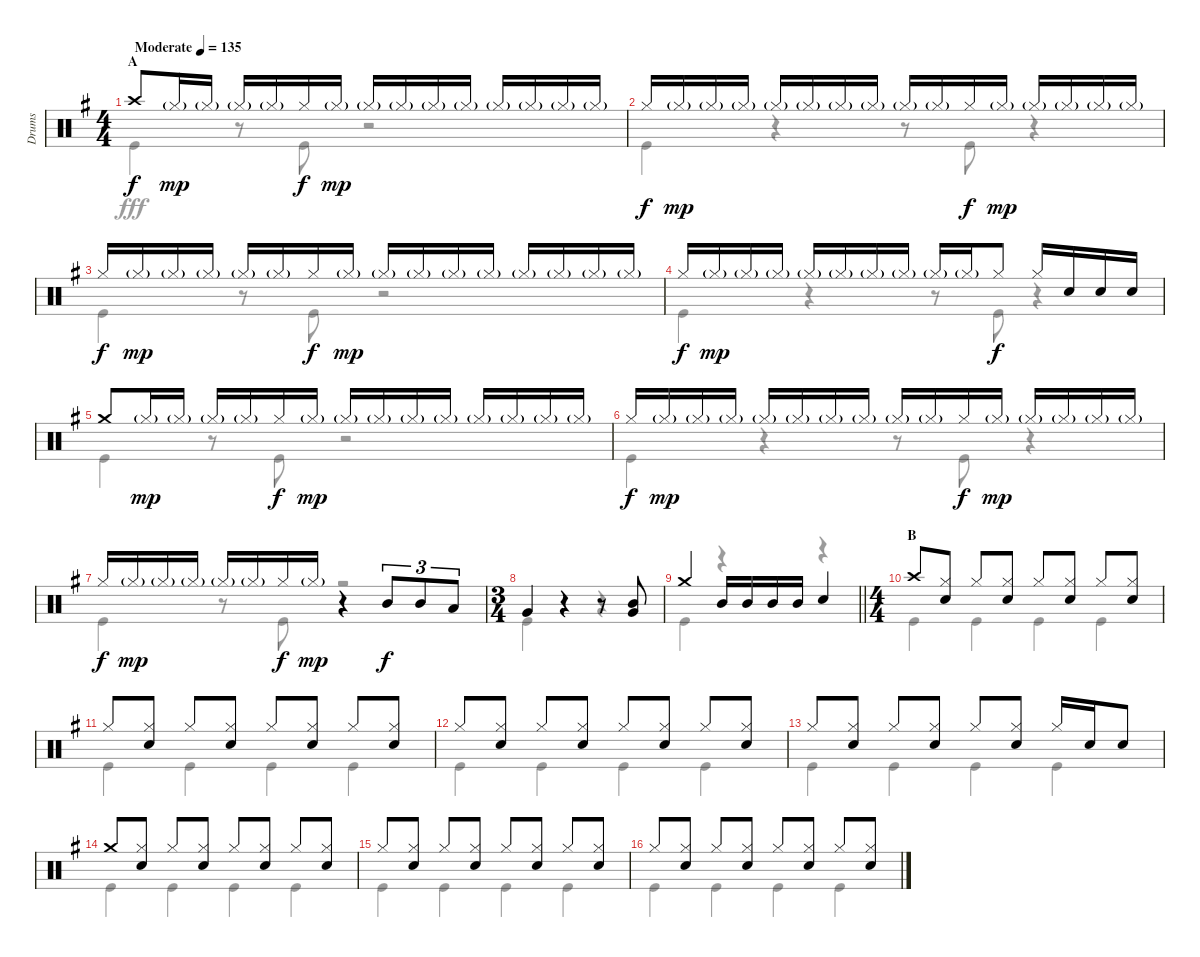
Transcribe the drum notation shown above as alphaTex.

\track ("Drums" "Drums") {instrument percussion}
\staff {score}
\articulation defaults
\voice
\ts (4 4)
\section ("" "A")
\tempo (135 "Moderate")
\clef neutral
\ks g "Crash high (hit)".8{dy f} "Hi-Hat (closed)"{g}.16{dy mp} "Hi-Hat (closed)"{g}.16 "Hi-Hat (closed)"{g}.16 "Hi-Hat (closed)"{g}.16 "Hi-Hat (closed)".16{dy f} "Hi-Hat (closed)"{g}.16{dy mp} "Hi-Hat (closed)"{g}.16 "Hi-Hat (closed)"{g}.16 "Hi-Hat (closed)"{g}.16 "Hi-Hat (closed)"{g}.16 "Hi-Hat (closed)"{g}.16 "Hi-Hat (closed)"{g}.16 "Hi-Hat (closed)"{g}.16 "Hi-Hat (closed)"{g}.16
|
"Hi-Hat (closed)".16{dy f} "Hi-Hat (closed)"{g}.16{dy mp} "Hi-Hat (closed)"{g}.16 "Hi-Hat (closed)"{g}.16 "Hi-Hat (closed)"{g}.16 "Hi-Hat (closed)"{g}.16 "Hi-Hat (closed)"{g}.16 "Hi-Hat (closed)"{g}.16 "Hi-Hat (closed)"{g}.16 "Hi-Hat (closed)"{g}.16 "Hi-Hat (closed)".16{dy f} "Hi-Hat (closed)"{g}.16{dy mp} "Hi-Hat (closed)"{g}.16 "Hi-Hat (closed)"{g}.16 "Hi-Hat (closed)"{g}.16 "Hi-Hat (closed)"{g}.16 |
"Hi-Hat (closed)".16{dy f} "Hi-Hat (closed)"{g}.16{dy mp} "Hi-Hat (closed)"{g}.16 "Hi-Hat (closed)"{g}.16 "Hi-Hat (closed)"{g}.16 "Hi-Hat (closed)"{g}.16 "Hi-Hat (closed)".16{dy f} "Hi-Hat (closed)"{g}.16{dy mp} "Hi-Hat (closed)"{g}.16 "Hi-Hat (closed)"{g}.16 "Hi-Hat (closed)"{g}.16 "Hi-Hat (closed)"{g}.16 "Hi-Hat (closed)"{g}.16 "Hi-Hat (closed)"{g}.16 "Hi-Hat (closed)"{g}.16 "Hi-Hat (closed)"{g}.16 |
"Hi-Hat (closed)".16{dy f} "Hi-Hat (closed)"{g}.16{dy mp} "Hi-Hat (closed)"{g}.16 "Hi-Hat (closed)"{g}.16 "Hi-Hat (closed)"{g}.16 "Hi-Hat (closed)"{g}.16 "Hi-Hat (closed)"{g}.16 "Hi-Hat (closed)"{g}.16 "Hi-Hat (closed)"{g}.16 "Hi-Hat (closed)"{g}.16 "Hi-Hat (closed)".8{dy f} "Hi-Hat (closed)".16 "Snare (hit) 2".16 "Snare (hit) 2".16 "Snare (hit) 2".16 |
"Crash medium (hit)".8 "Hi-Hat (closed)"{g}.16{dy mp} "Hi-Hat (closed)"{g}.16 "Hi-Hat (closed)"{g}.16 "Hi-Hat (closed)"{g}.16 "Hi-Hat (closed)".16{dy f} "Hi-Hat (closed)"{g}.16{dy mp} "Hi-Hat (closed)"{g}.16 "Hi-Hat (closed)"{g}.16 "Hi-Hat (closed)"{g}.16 "Hi-Hat (closed)"{g}.16 "Hi-Hat (closed)"{g}.16 "Hi-Hat (closed)"{g}.16 "Hi-Hat (closed)"{g}.16 "Hi-Hat (closed)"{g}.16 |
"Hi-Hat (closed)".16{dy f} "Hi-Hat (closed)"{g}.16{dy mp} "Hi-Hat (closed)"{g}.16 "Hi-Hat (closed)"{g}.16 "Hi-Hat (closed)"{g}.16 "Hi-Hat (closed)"{g}.16 "Hi-Hat (closed)"{g}.16 "Hi-Hat (closed)"{g}.16 "Hi-Hat (closed)"{g}.16 "Hi-Hat (closed)"{g}.16 "Hi-Hat (closed)".16{dy f} "Hi-Hat (closed)"{g}.16{dy mp} "Hi-Hat (closed)"{g}.16 "Hi-Hat (closed)"{g}.16 "Hi-Hat (closed)"{g}.16 "Hi-Hat (closed)"{g}.16 |
"Hi-Hat (closed)".16{dy f} "Hi-Hat (closed)"{g}.16{dy mp} "Hi-Hat (closed)"{g}.16 "Hi-Hat (closed)"{g}.16 "Hi-Hat (closed)"{g}.16 "Hi-Hat (closed)"{g}.16 "Hi-Hat (closed)".16{dy f} "Hi-Hat (closed)"{g}.16{dy mp} r.4 "Mid Tom (hit)".8{tu (3 2) dy f} "Mid Tom (hit)".8{tu (3 2)} "Low Tom (hit)".8{tu (3 2)} |
\ts (3 4)
"Very Low Tom (hit)".4 r.4 r.8 ("Mid Tom (hit)" "Very Low Tom (hit)").8 |
\barLineRight lightlight "Crash medium (hit)".4 "Mid Tom (hit)".16 "Mid Tom (hit)".16 "Mid Tom (hit)".16 "Mid Tom (hit)".16 "Snare (hit) 2".4
|
\ts (4 4)
\section ("" "B")
"Crash high (hit)".8 ("Hi-Hat (closed)" "Snare (hit) 2").8 "Hi-Hat (closed)".8 ("Hi-Hat (closed)" "Snare (hit) 2").8 "Hi-Hat (closed)".8 ("Hi-Hat (closed)" "Snare (hit) 2").8 "Hi-Hat (closed)".8 ("Hi-Hat (closed)" "Snare (hit) 2").8 |
"Hi-Hat (closed)".8 ("Hi-Hat (closed)" "Snare (hit) 2").8 "Hi-Hat (closed)".8 ("Hi-Hat (closed)" "Snare (hit) 2").8 "Hi-Hat (closed)".8 ("Hi-Hat (closed)" "Snare (hit) 2").8 "Hi-Hat (closed)".8 ("Hi-Hat (closed)" "Snare (hit) 2").8 |
"Hi-Hat (closed)".8 ("Hi-Hat (closed)" "Snare (hit) 2").8 "Hi-Hat (closed)".8 ("Hi-Hat (closed)" "Snare (hit) 2").8 "Hi-Hat (closed)".8 ("Hi-Hat (closed)" "Snare (hit) 2").8 "Hi-Hat (closed)".8 ("Hi-Hat (closed)" "Snare (hit) 2").8 |
"Hi-Hat (closed)".8 ("Hi-Hat (closed)" "Snare (hit) 2").8 "Hi-Hat (closed)".8 ("Hi-Hat (closed)" "Snare (hit) 2").8 "Hi-Hat (closed)".8 ("Hi-Hat (closed)" "Snare (hit) 2").8 "Hi-Hat (closed)".16 "Snare (hit) 2".16 "Snare (hit) 2".8 |
"Crash medium (hit)".8 ("Hi-Hat (closed)" "Snare (hit) 2").8 "Hi-Hat (closed)".8 ("Hi-Hat (closed)" "Snare (hit) 2").8 "Hi-Hat (closed)".8 ("Hi-Hat (closed)" "Snare (hit) 2").8 "Hi-Hat (closed)".8 ("Hi-Hat (closed)" "Snare (hit) 2").8 |
"Hi-Hat (closed)".8 ("Hi-Hat (closed)" "Snare (hit) 2").8 "Hi-Hat (closed)".8 ("Hi-Hat (closed)" "Snare (hit) 2").8 "Hi-Hat (closed)".8 ("Hi-Hat (closed)" "Snare (hit) 2").8 "Hi-Hat (closed)".8 ("Hi-Hat (closed)" "Snare (hit) 2").8 |
"Hi-Hat (closed)".8 ("Hi-Hat (closed)" "Snare (hit) 2").8 "Hi-Hat (closed)".8 ("Hi-Hat (closed)" "Snare (hit) 2").8 "Hi-Hat (closed)".8 ("Hi-Hat (closed)" "Snare (hit) 2").8 "Hi-Hat (closed)".8 ("Hi-Hat (closed)" "Snare (hit) 2").8
\voice
\clef neutral
\ottava regular
\simile none
\ks g "Kick (hit)".4{dy fff}
r.8 "Kick (hit)".8 r.2 |
"Kick (hit)".4 r.4 r.8 "Kick (hit)".8 r.4 |
"Kick (hit)".4 r.8 "Kick (hit)".8 r.2 |
"Kick (hit)".4 r.4 r.8 "Kick (hit)".8 r.4 |
"Kick (hit)".4 r.8 "Kick (hit)".8 r.2 |
"Kick (hit)".4 r.4 r.8 "Kick (hit)".8 r.4 |
"Kick (hit)".4 r.8 "Kick (hit)".8 r.2 |
"Kick (hit)".4 r.4 r.4 |
\barLineRight lightlight "Kick (hit)".4
r.4 r.4 |
"Kick (hit)".4 "Kick (hit)".4 "Kick (hit)".4 "Kick (hit)".4 |
"Kick (hit)".4 "Kick (hit)".4 "Kick (hit)".4 "Kick (hit)".4 |
"Kick (hit)".4 "Kick (hit)".4 "Kick (hit)".4 "Kick (hit)".4 |
"Kick (hit)".4 "Kick (hit)".4 "Kick (hit)".4 "Kick (hit)".4 |
"Kick (hit)".4 "Kick (hit)".4 "Kick (hit)".4 "Kick (hit)".4 |
"Kick (hit)".4 "Kick (hit)".4 "Kick (hit)".4 "Kick (hit)".4 |
"Kick (hit)".4 "Kick (hit)".4 "Kick (hit)".4 "Kick (hit)".4
